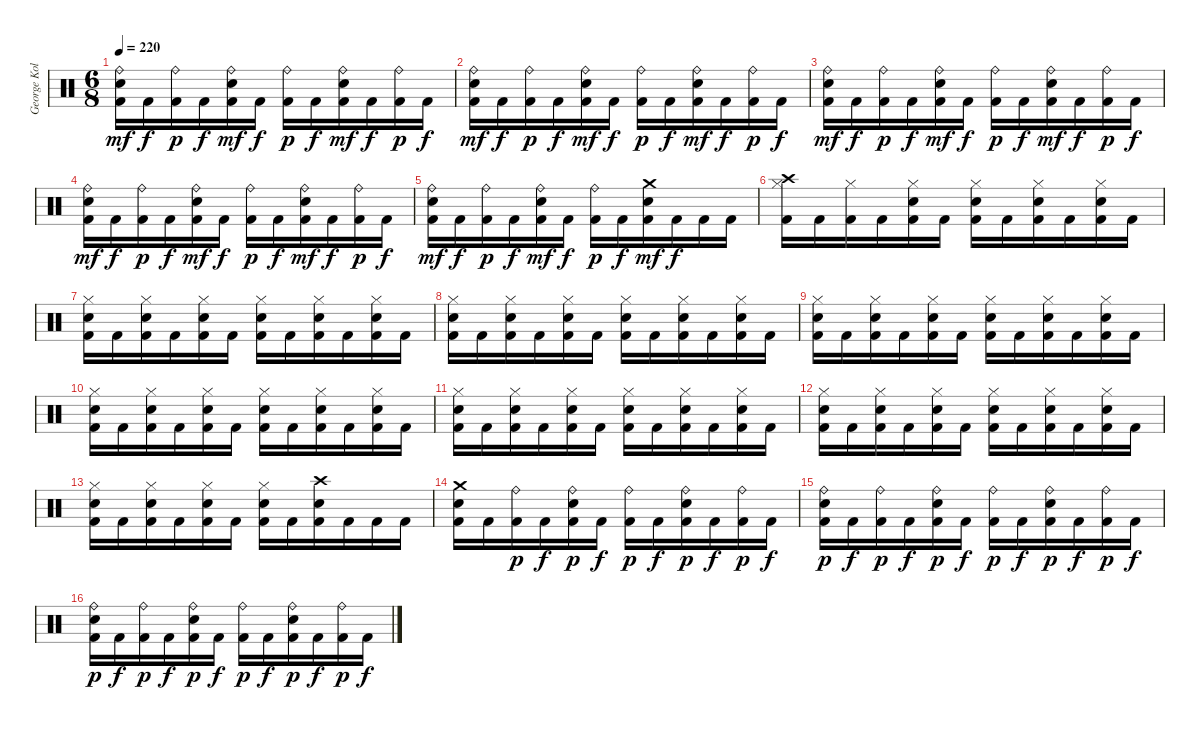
\track ("George Kollias" "George Kol") {instrument percussion}
\staff {score}
\articulation defaults
\ts (6 8)
\tempo 220
\clef neutral
\ks c
("Ride (bell)" "Electric Snare (hit)" "Kick (hit) 2").16{dy mf} "Kick (hit) 2".16{dy f} ("Ride (bell)" "Kick (hit) 2").16{dy p} "Kick (hit) 2".16{dy f} ("Ride (bell)" "Electric Snare (hit)" "Kick (hit) 2").16{dy mf} "Kick (hit) 2".16{dy f} ("Ride (bell)" "Kick (hit) 2").16{dy p} "Kick (hit) 2".16{dy f} ("Ride (bell)" "Electric Snare (hit)" "Kick (hit) 2").16{dy mf} "Kick (hit) 2".16{dy f} ("Ride (bell)" "Kick (hit) 2").16{dy p} "Kick (hit) 2".16{dy f} |
("Ride (bell)" "Electric Snare (hit)" "Kick (hit) 2").16{dy mf} "Kick (hit) 2".16{dy f} ("Ride (bell)" "Kick (hit) 2").16{dy p} "Kick (hit) 2".16{dy f} ("Ride (bell)" "Electric Snare (hit)" "Kick (hit) 2").16{dy mf} "Kick (hit) 2".16{dy f} ("Ride (bell)" "Kick (hit) 2").16{dy p} "Kick (hit) 2".16{dy f} ("Ride (bell)" "Electric Snare (hit)" "Kick (hit) 2").16{dy mf} "Kick (hit) 2".16{dy f} ("Ride (bell)" "Kick (hit) 2").16{dy p} "Kick (hit) 2".16{dy f} |
("Ride (bell)" "Electric Snare (hit)" "Kick (hit) 2").16{dy mf} "Kick (hit) 2".16{dy f} ("Ride (bell)" "Kick (hit) 2").16{dy p} "Kick (hit) 2".16{dy f} ("Ride (bell)" "Electric Snare (hit)" "Kick (hit) 2").16{dy mf} "Kick (hit) 2".16{dy f} ("Ride (bell)" "Kick (hit) 2").16{dy p} "Kick (hit) 2".16{dy f} ("Ride (bell)" "Electric Snare (hit)" "Kick (hit) 2").16{dy mf} "Kick (hit) 2".16{dy f} ("Ride (bell)" "Kick (hit) 2").16{dy p} "Kick (hit) 2".16{dy f} |
("Ride (bell)" "Electric Snare (hit)" "Kick (hit) 2").16{dy mf} "Kick (hit) 2".16{dy f} ("Ride (bell)" "Kick (hit) 2").16{dy p} "Kick (hit) 2".16{dy f} ("Ride (bell)" "Electric Snare (hit)" "Kick (hit) 2").16{dy mf} "Kick (hit) 2".16{dy f} ("Ride (bell)" "Kick (hit) 2").16{dy p} "Kick (hit) 2".16{dy f} ("Ride (bell)" "Electric Snare (hit)" "Kick (hit) 2").16{dy mf} "Kick (hit) 2".16{dy f} ("Ride (bell)" "Kick (hit) 2").16{dy p} "Kick (hit) 2".16{dy f} |
("Ride (bell)" "Electric Snare (hit)" "Kick (hit) 2").16{dy mf} "Kick (hit) 2".16{dy f} ("Ride (bell)" "Kick (hit) 2").16{dy p} "Kick (hit) 2".16{dy f} ("Ride (bell)" "Electric Snare (hit)" "Kick (hit) 2").16{dy mf} "Kick (hit) 2".16{dy f} ("Ride (bell)" "Kick (hit) 2").16{dy p} "Kick (hit) 2".16{dy f} ("Crash medium (hit)" "Electric Snare (hit)" "Kick (hit) 2").16{dy mf} "Kick (hit) 2".16{dy f} "Kick (hit) 2".16 "Kick (hit) 2".16 |
("Crash high (hit)" "Hi-Hat (closed)" "Kick (hit) 2").16 "Kick (hit) 2".16 ("Hi-Hat (closed)" "Kick (hit) 2").16 "Kick (hit) 2".16 ("Hi-Hat (closed)" "Electric Snare (hit)" "Kick (hit) 2").16 "Kick (hit) 2".16 ("Hi-Hat (closed)" "Electric Snare (hit)" "Kick (hit) 2").16 "Kick (hit) 2".16 ("Hi-Hat (closed)" "Electric Snare (hit)" "Kick (hit) 2").16 "Kick (hit) 2".16 ("Hi-Hat (closed)" "Electric Snare (hit)" "Kick (hit) 2").16 "Kick (hit) 2".16 |
("Hi-Hat (closed)" "Electric Snare (hit)" "Kick (hit) 2").16 "Kick (hit) 2".16 ("Hi-Hat (closed)" "Electric Snare (hit)" "Kick (hit) 2").16 "Kick (hit) 2".16 ("Hi-Hat (closed)" "Electric Snare (hit)" "Kick (hit) 2").16 "Kick (hit) 2".16 ("Hi-Hat (closed)" "Electric Snare (hit)" "Kick (hit) 2").16 "Kick (hit) 2".16 ("Hi-Hat (closed)" "Electric Snare (hit)" "Kick (hit) 2").16 "Kick (hit) 2".16 ("Hi-Hat (closed)" "Electric Snare (hit)" "Kick (hit) 2").16 "Kick (hit) 2".16 |
("Hi-Hat (closed)" "Electric Snare (hit)" "Kick (hit) 2").16 "Kick (hit) 2".16 ("Hi-Hat (closed)" "Electric Snare (hit)" "Kick (hit) 2").16 "Kick (hit) 2".16 ("Hi-Hat (closed)" "Electric Snare (hit)" "Kick (hit) 2").16 "Kick (hit) 2".16 ("Hi-Hat (closed)" "Electric Snare (hit)" "Kick (hit) 2").16 "Kick (hit) 2".16 ("Hi-Hat (closed)" "Electric Snare (hit)" "Kick (hit) 2").16 "Kick (hit) 2".16 ("Hi-Hat (closed)" "Electric Snare (hit)" "Kick (hit) 2").16 "Kick (hit) 2".16 |
("Hi-Hat (closed)" "Electric Snare (hit)" "Kick (hit) 2").16 "Kick (hit) 2".16 ("Hi-Hat (closed)" "Electric Snare (hit)" "Kick (hit) 2").16 "Kick (hit) 2".16 ("Hi-Hat (closed)" "Electric Snare (hit)" "Kick (hit) 2").16 "Kick (hit) 2".16 ("Hi-Hat (closed)" "Electric Snare (hit)" "Kick (hit) 2").16 "Kick (hit) 2".16 ("Hi-Hat (closed)" "Electric Snare (hit)" "Kick (hit) 2").16 "Kick (hit) 2".16 ("Hi-Hat (closed)" "Electric Snare (hit)" "Kick (hit) 2").16 "Kick (hit) 2".16 |
("Hi-Hat (closed)" "Electric Snare (hit)" "Kick (hit) 2").16 "Kick (hit) 2".16 ("Hi-Hat (closed)" "Electric Snare (hit)" "Kick (hit) 2").16 "Kick (hit) 2".16 ("Hi-Hat (closed)" "Electric Snare (hit)" "Kick (hit) 2").16 "Kick (hit) 2".16 ("Hi-Hat (closed)" "Electric Snare (hit)" "Kick (hit) 2").16 "Kick (hit) 2".16 ("Hi-Hat (closed)" "Electric Snare (hit)" "Kick (hit) 2").16 "Kick (hit) 2".16 ("Hi-Hat (closed)" "Electric Snare (hit)" "Kick (hit) 2").16 "Kick (hit) 2".16 |
("Hi-Hat (closed)" "Electric Snare (hit)" "Kick (hit) 2").16 "Kick (hit) 2".16 ("Hi-Hat (closed)" "Electric Snare (hit)" "Kick (hit) 2").16 "Kick (hit) 2".16 ("Hi-Hat (closed)" "Electric Snare (hit)" "Kick (hit) 2").16 "Kick (hit) 2".16 ("Hi-Hat (closed)" "Electric Snare (hit)" "Kick (hit) 2").16 "Kick (hit) 2".16 ("Hi-Hat (closed)" "Electric Snare (hit)" "Kick (hit) 2").16 "Kick (hit) 2".16 ("Hi-Hat (closed)" "Electric Snare (hit)" "Kick (hit) 2").16 "Kick (hit) 2".16 |
("Hi-Hat (closed)" "Electric Snare (hit)" "Kick (hit) 2").16 "Kick (hit) 2".16 ("Hi-Hat (closed)" "Electric Snare (hit)" "Kick (hit) 2").16 "Kick (hit) 2".16 ("Hi-Hat (closed)" "Electric Snare (hit)" "Kick (hit) 2").16 "Kick (hit) 2".16 ("Hi-Hat (closed)" "Electric Snare (hit)" "Kick (hit) 2").16 "Kick (hit) 2".16 ("Hi-Hat (closed)" "Electric Snare (hit)" "Kick (hit) 2").16 "Kick (hit) 2".16 ("Hi-Hat (closed)" "Electric Snare (hit)" "Kick (hit) 2").16 "Kick (hit) 2".16 |
("Hi-Hat (closed)" "Electric Snare (hit)" "Kick (hit) 2").16 "Kick (hit) 2".16 ("Hi-Hat (closed)" "Electric Snare (hit)" "Kick (hit) 2").16 "Kick (hit) 2".16 ("Hi-Hat (closed)" "Electric Snare (hit)" "Kick (hit) 2").16 "Kick (hit) 2".16 ("Hi-Hat (closed)" "Electric Snare (hit)" "Kick (hit) 2").16 "Kick (hit) 2".16 ("Crash high (hit)" "Electric Snare (hit)" "Kick (hit) 2").16 "Kick (hit) 2".16 "Kick (hit) 2".16 "Kick (hit) 2".16 |
("Crash medium (hit)" "Electric Snare (hit)" "Kick (hit) 2").16 "Kick (hit) 2".16 ("Ride (bell)" "Kick (hit) 2").16{dy p} "Kick (hit) 2".16{dy f} ("Ride (bell)" "Electric Snare (hit)" "Kick (hit) 2").16{dy p} "Kick (hit) 2".16{dy f} ("Ride (bell)" "Kick (hit) 2").16{dy p} "Kick (hit) 2".16{dy f} ("Ride (bell)" "Electric Snare (hit)" "Kick (hit) 2").16{dy p} "Kick (hit) 2".16{dy f} ("Ride (bell)" "Kick (hit) 2").16{dy p} "Kick (hit) 2".16{dy f} |
("Ride (bell)" "Electric Snare (hit)" "Kick (hit) 2").16{dy p} "Kick (hit) 2".16{dy f} ("Ride (bell)" "Kick (hit) 2").16{dy p} "Kick (hit) 2".16{dy f} ("Ride (bell)" "Electric Snare (hit)" "Kick (hit) 2").16{dy p} "Kick (hit) 2".16{dy f} ("Ride (bell)" "Kick (hit) 2").16{dy p} "Kick (hit) 2".16{dy f} ("Ride (bell)" "Electric Snare (hit)" "Kick (hit) 2").16{dy p} "Kick (hit) 2".16{dy f} ("Ride (bell)" "Kick (hit) 2").16{dy p} "Kick (hit) 2".16{dy f} |
("Ride (bell)" "Electric Snare (hit)" "Kick (hit) 2").16{dy p} "Kick (hit) 2".16{dy f} ("Ride (bell)" "Kick (hit) 2").16{dy p} "Kick (hit) 2".16{dy f} ("Ride (bell)" "Electric Snare (hit)" "Kick (hit) 2").16{dy p} "Kick (hit) 2".16{dy f} ("Ride (bell)" "Kick (hit) 2").16{dy p} "Kick (hit) 2".16{dy f} ("Ride (bell)" "Electric Snare (hit)" "Kick (hit) 2").16{dy p} "Kick (hit) 2".16{dy f} ("Ride (bell)" "Kick (hit) 2").16{dy p} "Kick (hit) 2".16{dy f}
